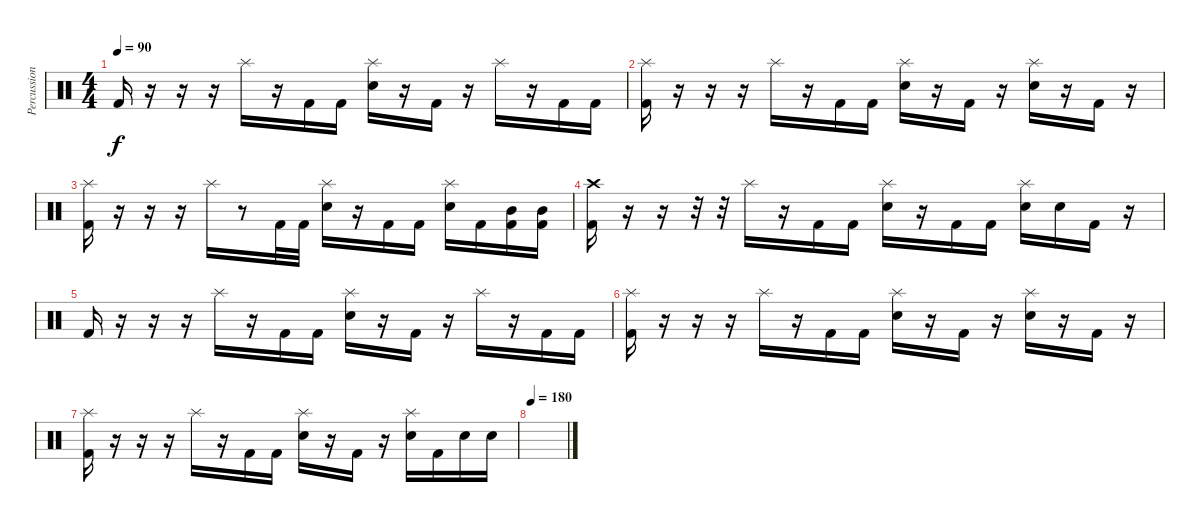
\track ("Percussion" "Percussion") {instrument percussion}
\staff {score}
\articulation defaults
\ts (4 4)
\tempo 90
\clef neutral
\ks c "Kick (hit) 2".16{dy f}
r.16 r.16 r.16 "Splash (hit)".16 r.16 "Kick (hit) 2".16 "Kick (hit) 2".16 ("Splash (hit)" "Snare (hit) 2").16 r.16 "Kick (hit) 2".16 r.16 "Splash (hit)".16 r.16 "Kick (hit) 2".16 "Kick (hit) 2".16 |
("Splash (hit)" "Kick (hit) 2").16 r.16 r.16 r.16 "Splash (hit)".16 r.16 "Kick (hit) 2".16 "Kick (hit) 2".16 ("Splash (hit)" "Snare (hit) 2").16 r.16 "Kick (hit) 2".16 r.16 ("Splash (hit)" "Snare (hit) 2").16 r.16 "Kick (hit) 2".16 r.16 |
("Splash (hit)" "Kick (hit) 2").16 r.16 r.16 r.16 "Splash (hit)".16 r.8 "Kick (hit) 2".32 "Kick (hit) 2".32 ("Splash (hit)" "Snare (hit) 2").16 r.16 "Kick (hit) 2".16 "Kick (hit) 2".16 ("Splash (hit)" "Snare (hit) 2").16 "Kick (hit) 2".16 ("Mid Tom (hit)" "Kick (hit) 2").16 ("Mid Tom (hit)" "Kick (hit) 2").16 |
("Crash high (hit)" "Kick (hit) 2").16 r.16 r.16 r.32 r.32 "Splash (hit)".16 r.16 "Kick (hit) 2".16 "Kick (hit) 2".16 ("Splash (hit)" "Snare (hit) 2").16 r.16 "Kick (hit) 2".16 "Kick (hit) 2".16 ("Splash (hit)" "Snare (hit) 2").16 "Snare (hit) 2".16 "Kick (hit) 2".16 r.16 |
"Kick (hit) 2".16 r.16 r.16 r.16 "Splash (hit)".16 r.16 "Kick (hit) 2".16 "Kick (hit) 2".16 ("Splash (hit)" "Snare (hit) 2").16 r.16 "Kick (hit) 2".16 r.16 "Splash (hit)".16 r.16 "Kick (hit) 2".16 "Kick (hit) 2".16 |
("Splash (hit)" "Kick (hit) 2").16 r.16 r.16 r.16 "Splash (hit)".16 r.16 "Kick (hit) 2".16 "Kick (hit) 2".16 ("Splash (hit)" "Snare (hit) 2").16 r.16 "Kick (hit) 2".16 r.16 ("Splash (hit)" "Snare (hit) 2").16 r.16 "Kick (hit) 2".16 r.16 |
("Splash (hit)" "Kick (hit) 2").16 r.16 r.16 r.16 "Splash (hit)".16 r.16 "Kick (hit) 2".16 "Kick (hit) 2".16 ("Splash (hit)" "Snare (hit) 2").16 r.16 "Kick (hit) 2".16 r.16 ("Splash (hit)" "Snare (hit) 2").16 "Kick (hit) 2".16 "Snare (hit) 2".16 "Snare (hit) 2".16 |
\tempo 180
